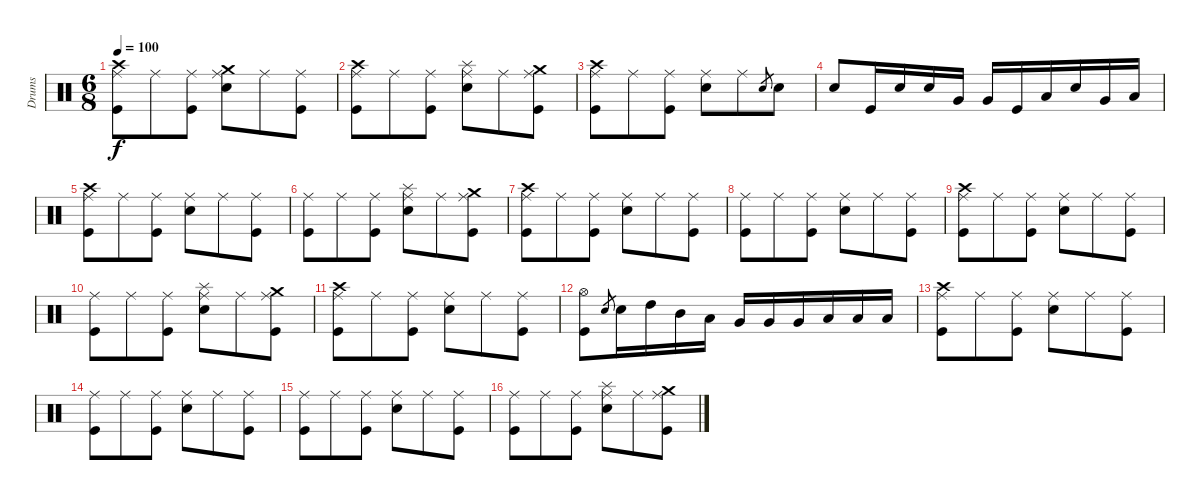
\track ("Drums" "Drums") {instrument percussion}
\staff {score}
\articulation defaults
\ts (6 8)
\tempo 100
\clef neutral
\ks c
("Crash high (hit)" "Ride (middle)" "Kick (hit)").8{dy f} "Ride (middle)".8 ("Ride (middle)" "Kick (hit)").8 ("Crash medium (hit)" "Ride (middle)" "Electric Snare (hit)").8 "Ride (middle)".8 ("Ride (middle)" "Kick (hit)").8 |
("Crash high (hit)" "Ride (middle)" "Kick (hit)").8 "Ride (middle)".8 ("Ride (middle)" "Kick (hit)").8 ("Splash (hit)" "Ride (middle)" "Electric Snare (hit)").8 "Ride (middle)".8 ("Crash medium (hit)" "Ride (middle)" "Kick (hit)").8 |
("Crash high (hit)" "Ride (middle)" "Kick (hit)").8 "Ride (middle)".8 ("Ride (middle)" "Kick (hit)").8 ("Ride (middle)" "Electric Snare (hit)").8 "Ride (middle)".8 "Electric Snare (hit)".8{gr} "Electric Snare (hit)".8 |
"Electric Snare (hit)".8 "Kick (hit)".16 "Electric Snare (hit)".16 "Electric Snare (hit)".16 "Very Low Tom (hit)".16 "Very Low Tom (hit)".16 "Kick (hit)".16 "Low Tom (hit)".16 "Electric Snare (hit)".16 "Very Low Tom (hit)".16 "Low Floor Tom (hit)".16 |
("Crash high (hit)" "Ride (middle)" "Kick (hit)").8 "Ride (middle)".8 ("Ride (middle)" "Kick (hit)").8 ("Ride (middle)" "Electric Snare (hit)").8 "Ride (middle)".8 ("Ride (middle)" "Kick (hit)").8 |
("Ride (middle)" "Kick (hit)").8 "Ride (middle)".8 ("Ride (middle)" "Kick (hit)").8 ("Splash (hit)" "Ride (middle)" "Electric Snare (hit)").8 "Ride (middle)".8 ("Crash medium (hit)" "Ride (middle)" "Kick (hit)").8 |
("Crash high (hit)" "Ride (middle)" "Kick (hit)").8 "Ride (middle)".8 ("Ride (middle)" "Kick (hit)").8 ("Ride (middle)" "Electric Snare (hit)").8 "Ride (middle)".8 ("Ride (middle)" "Kick (hit)").8 |
("Ride (middle)" "Kick (hit)").8 "Ride (middle)".8 ("Ride (middle)" "Kick (hit)").8 ("Ride (middle)" "Electric Snare (hit)").8 "Ride (middle)".8 ("Ride (middle)" "Kick (hit)").8 |
("Crash high (hit)" "Ride (middle)" "Kick (hit)").8 "Ride (middle)".8 ("Ride (middle)" "Kick (hit)").8 ("Ride (middle)" "Electric Snare (hit)").8 "Ride (middle)".8 ("Ride (middle)" "Kick (hit)").8 |
("Ride (middle)" "Kick (hit)").8 "Ride (middle)".8 ("Ride (middle)" "Kick (hit)").8 ("Splash (hit)" "Ride (middle)" "Electric Snare (hit)").8 "Ride (middle)".8 ("Crash medium (hit)" "Ride (middle)" "Kick (hit)").8 |
("Crash high (hit)" "Ride (middle)" "Kick (hit)").8 "Ride (middle)".8 ("Ride (middle)" "Kick (hit)").8 ("Ride (middle)" "Electric Snare (hit)").8 "Ride (middle)".8 ("Ride (middle)" "Kick (hit)").8 |
("Hi-Hat (open)" "Kick (hit)").8 "Electric Snare (hit)".8{gr} "Electric Snare (hit)".16 "High Tom (hit)".16 "Mid Tom (hit)".16 "Low Tom (hit)".16 "Very Low Tom (hit)".16 "Very Low Tom (hit)".16 "Very Low Tom (hit)".16 "Low Floor Tom (hit)".16 "Low Floor Tom (hit)".16 "Low Floor Tom (hit)".16 |
("Crash high (hit)" "Ride (middle)" "Kick (hit)").8 "Ride (middle)".8 ("Ride (middle)" "Kick (hit)").8 ("Ride (middle)" "Electric Snare (hit)").8 "Ride (middle)".8 ("Ride (middle)" "Kick (hit)").8 |
("Ride (middle)" "Kick (hit)").8 "Ride (middle)".8 ("Ride (middle)" "Kick (hit)").8 ("Ride (middle)" "Electric Snare (hit)").8 "Ride (middle)".8 ("Ride (middle)" "Kick (hit)").8 |
("Ride (middle)" "Kick (hit)").8 "Ride (middle)".8 ("Ride (middle)" "Kick (hit)").8 ("Ride (middle)" "Electric Snare (hit)").8 "Ride (middle)".8 ("Ride (middle)" "Kick (hit)").8 |
("Ride (middle)" "Kick (hit)").8 "Ride (middle)".8 ("Ride (middle)" "Kick (hit)").8 ("Splash (hit)" "Ride (middle)" "Electric Snare (hit)").8 "Ride (middle)".8 ("Crash medium (hit)" "Ride (middle)" "Kick (hit)").8
